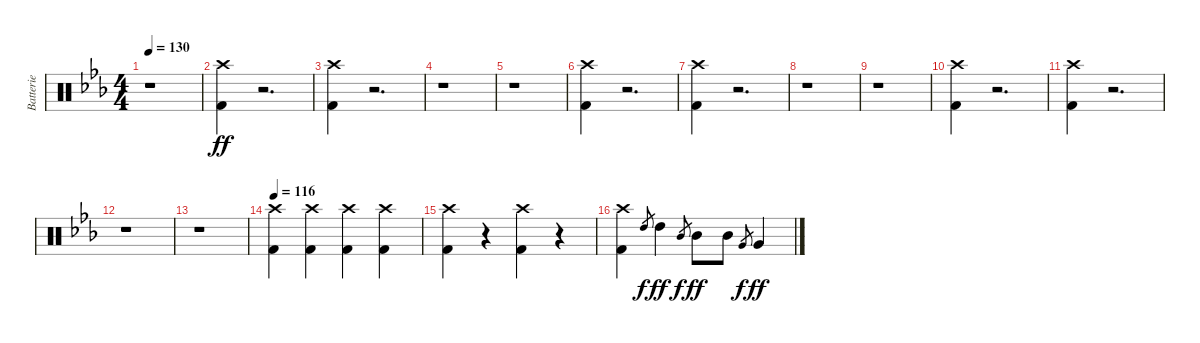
\track ("Batterie" "Batterie") {instrument percussion}
\staff {score}
\articulation defaults
\ts (4 4)
\tempo 130
\clef neutral
\ks eb
r.1{dy ff} |
("Crash high (hit)" "Kick (hit) 2").4 r.2{d} |
("Crash high (hit)" "Kick (hit) 2").4 r.2{d} |
r.1 |
r.1 |
("Crash high (hit)" "Kick (hit) 2").4 r.2{d} |
("Crash high (hit)" "Kick (hit) 2").4 r.2{d} |
r.1 |
r.1 |
("Crash high (hit)" "Kick (hit) 2").4 r.2{d} |
("Crash high (hit)" "Kick (hit) 2").4 r.2{d} |
r.1 |
r.1 |
\tempo 116
("Crash high (hit)" "Kick (hit) 2").4 ("Crash high (hit)" "Kick (hit) 2").4 ("Crash high (hit)" "Kick (hit) 2").4 ("Crash high (hit)" "Kick (hit) 2").4 |
("Crash high (hit)" "Kick (hit) 2").4 r.4 ("Crash high (hit)" "Kick (hit) 2").4 r.4 |
("Crash high (hit)" "Kick (hit) 2").4 "High Tom (hit)".8{gr dy f} "High Tom (hit)".4{dy ff} "Mid Tom (hit)".8{gr dy f} "Mid Tom (hit)".8{dy ff} "Mid Tom (hit)".8 "Very Low Tom (hit)".8{gr dy f} "Very Low Tom (hit)".4{dy ff}
